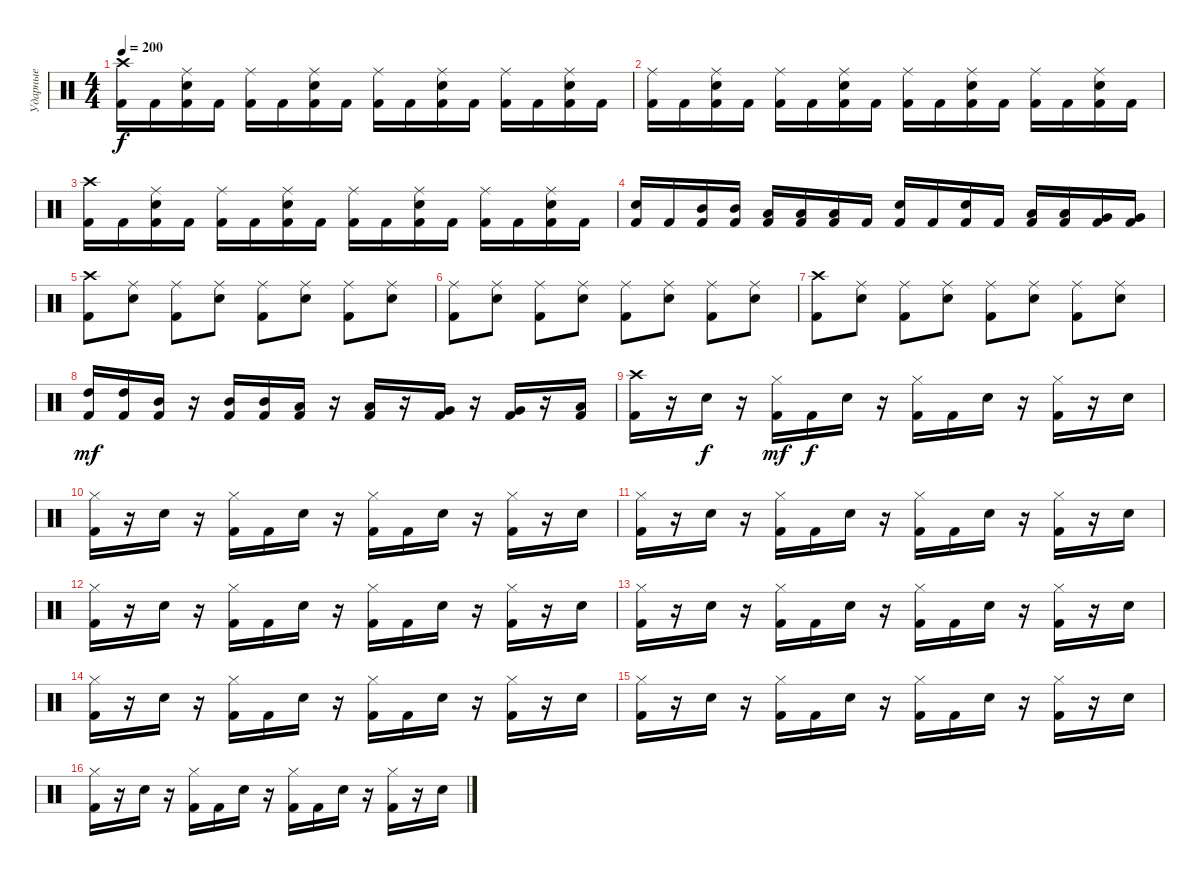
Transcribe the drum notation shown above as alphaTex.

\track ("Ударные" "Ударные") {instrument percussion}
\staff {score}
\articulation defaults
\ts (4 4)
\tempo 200
\clef neutral
\ks c
("Crash high (hit)" "Kick (hit) 2").16{dy f} "Kick (hit) 2".16 ("Ride (middle)" "Snare (hit) 2" "Kick (hit) 2").16 "Kick (hit) 2".16 ("Ride (middle)" "Kick (hit) 2").16 "Kick (hit) 2".16 ("Ride (middle)" "Snare (hit) 2" "Kick (hit) 2").16 "Kick (hit) 2".16 ("Ride (middle)" "Kick (hit) 2").16 "Kick (hit) 2".16 ("Ride (middle)" "Snare (hit) 2" "Kick (hit) 2").16 "Kick (hit) 2".16 ("Ride (middle)" "Kick (hit) 2").16 "Kick (hit) 2".16 ("Ride (middle)" "Snare (hit) 2" "Kick (hit) 2").16 "Kick (hit) 2".16 |
("Ride (middle)" "Kick (hit) 2").16 "Kick (hit) 2".16 ("Ride (middle)" "Snare (hit) 2" "Kick (hit) 2").16 "Kick (hit) 2".16 ("Ride (middle)" "Kick (hit) 2").16 "Kick (hit) 2".16 ("Ride (middle)" "Snare (hit) 2" "Kick (hit) 2").16 "Kick (hit) 2".16 ("Ride (middle)" "Kick (hit) 2").16 "Kick (hit) 2".16 ("Ride (middle)" "Snare (hit) 2" "Kick (hit) 2").16 "Kick (hit) 2".16 ("Ride (middle)" "Kick (hit) 2").16 "Kick (hit) 2".16 ("Ride (middle)" "Snare (hit) 2" "Kick (hit) 2").16 "Kick (hit) 2".16 |
("Crash high (hit)" "Kick (hit) 2").16 "Kick (hit) 2".16 ("Ride (middle)" "Snare (hit) 2" "Kick (hit) 2").16 "Kick (hit) 2".16 ("Ride (middle)" "Kick (hit) 2").16 "Kick (hit) 2".16 ("Ride (middle)" "Snare (hit) 2" "Kick (hit) 2").16 "Kick (hit) 2".16 ("Ride (middle)" "Kick (hit) 2").16 "Kick (hit) 2".16 ("Ride (middle)" "Snare (hit) 2" "Kick (hit) 2").16 "Kick (hit) 2".16 ("Ride (middle)" "Kick (hit) 2").16 "Kick (hit) 2".16 ("Ride (middle)" "Snare (hit) 2" "Kick (hit) 2").16 "Kick (hit) 2".16 |
("Snare (hit) 2" "Kick (hit) 2").16 "Kick (hit) 2".16 ("Mid Tom (hit)" "Kick (hit) 2").16 ("Mid Tom (hit)" "Kick (hit) 2").16 ("Low Tom (hit)" "Kick (hit) 2").16 ("Low Tom (hit)" "Kick (hit) 2").16 ("Low Tom (hit)" "Kick (hit) 2").16 "Kick (hit) 2".16 ("Snare (hit) 2" "Kick (hit) 2").16 "Kick (hit) 2".16 ("Snare (hit) 2" "Kick (hit) 2").16 "Kick (hit) 2".16 ("Low Tom (hit)" "Kick (hit) 2").16 ("Low Tom (hit)" "Kick (hit) 2").16 ("Very Low Tom (hit)" "Kick (hit) 2").16 ("Very Low Tom (hit)" "Kick (hit) 2").16 |
("Crash high (hit)" "Kick (hit) 2").8 ("Ride (middle)" "Snare (hit) 2").8 ("Ride (middle)" "Kick (hit) 2").8 ("Ride (middle)" "Snare (hit) 2").8 ("Ride (middle)" "Kick (hit) 2").8 ("Ride (middle)" "Snare (hit) 2").8 ("Ride (middle)" "Kick (hit) 2").8 ("Ride (middle)" "Snare (hit) 2").8 |
("Ride (middle)" "Kick (hit) 2").8 ("Ride (middle)" "Snare (hit) 2").8 ("Ride (middle)" "Kick (hit) 2").8 ("Ride (middle)" "Snare (hit) 2").8 ("Ride (middle)" "Kick (hit) 2").8 ("Ride (middle)" "Snare (hit) 2").8 ("Ride (middle)" "Kick (hit) 2").8 ("Ride (middle)" "Snare (hit) 2").8 |
("Crash high (hit)" "Kick (hit) 2").8 ("Ride (middle)" "Snare (hit) 2").8 ("Ride (middle)" "Kick (hit) 2").8 ("Ride (middle)" "Snare (hit) 2").8 ("Ride (middle)" "Kick (hit) 2").8 ("Ride (middle)" "Snare (hit) 2").8 ("Ride (middle)" "Kick (hit) 2").8 ("Ride (middle)" "Snare (hit) 2").8 |
("High Tom (hit)" "Kick (hit) 2").16{dy mf} ("High Tom (hit)" "Kick (hit) 2").16 ("Mid Tom (hit)" "Kick (hit) 2").16 r.16 ("Mid Tom (hit)" "Kick (hit) 2").16 ("Mid Tom (hit)" "Kick (hit) 2").16 ("Low Tom (hit)" "Kick (hit) 2").16 r.16 ("Low Tom (hit)" "Kick (hit) 2").16 r.16 ("Very Low Tom (hit)" "Kick (hit) 2").16 r.16 ("Very Low Tom (hit)" "Kick (hit) 2").16 r.16 ("Low Tom (hit)" "Kick (hit) 2").16 |
("Crash high (hit)" "Kick (hit) 2").16 r.16 "Snare (hit) 2".16{dy f} r.16 ("Hi-Hat (closed)" "Kick (hit) 2").16{dy mf} "Kick (hit) 2".16{dy f} "Snare (hit) 2".16 r.16 ("Hi-Hat (closed)" "Kick (hit) 2").16 "Kick (hit) 2".16 "Snare (hit) 2".16 r.16 ("Hi-Hat (closed)" "Kick (hit) 2").16 r.16 "Snare (hit) 2".16 |
("Hi-Hat (closed)" "Kick (hit) 2").16 r.16 "Snare (hit) 2".16 r.16 ("Hi-Hat (closed)" "Kick (hit) 2").16 "Kick (hit) 2".16 "Snare (hit) 2".16 r.16 ("Hi-Hat (closed)" "Kick (hit) 2").16 "Kick (hit) 2".16 "Snare (hit) 2".16 r.16 ("Hi-Hat (closed)" "Kick (hit) 2").16 r.16 "Snare (hit) 2".16 |
("Hi-Hat (closed)" "Kick (hit) 2").16 r.16 "Snare (hit) 2".16 r.16 ("Hi-Hat (closed)" "Kick (hit) 2").16 "Kick (hit) 2".16 "Snare (hit) 2".16 r.16 ("Hi-Hat (closed)" "Kick (hit) 2").16 "Kick (hit) 2".16 "Snare (hit) 2".16 r.16 ("Hi-Hat (closed)" "Kick (hit) 2").16 r.16 "Snare (hit) 2".16 |
("Hi-Hat (closed)" "Kick (hit) 2").16 r.16 "Snare (hit) 2".16 r.16 ("Hi-Hat (closed)" "Kick (hit) 2").16 "Kick (hit) 2".16 "Snare (hit) 2".16 r.16 ("Hi-Hat (closed)" "Kick (hit) 2").16 "Kick (hit) 2".16 "Snare (hit) 2".16 r.16 ("Hi-Hat (closed)" "Kick (hit) 2").16 r.16 "Snare (hit) 2".16 |
("Hi-Hat (closed)" "Kick (hit) 2").16 r.16 "Snare (hit) 2".16 r.16 ("Hi-Hat (closed)" "Kick (hit) 2").16 "Kick (hit) 2".16 "Snare (hit) 2".16 r.16 ("Hi-Hat (closed)" "Kick (hit) 2").16 "Kick (hit) 2".16 "Snare (hit) 2".16 r.16 ("Hi-Hat (closed)" "Kick (hit) 2").16 r.16 "Snare (hit) 2".16 |
("Hi-Hat (closed)" "Kick (hit) 2").16 r.16 "Snare (hit) 2".16 r.16 ("Hi-Hat (closed)" "Kick (hit) 2").16 "Kick (hit) 2".16 "Snare (hit) 2".16 r.16 ("Hi-Hat (closed)" "Kick (hit) 2").16 "Kick (hit) 2".16 "Snare (hit) 2".16 r.16 ("Hi-Hat (closed)" "Kick (hit) 2").16 r.16 "Snare (hit) 2".16 |
("Hi-Hat (closed)" "Kick (hit) 2").16 r.16 "Snare (hit) 2".16 r.16 ("Hi-Hat (closed)" "Kick (hit) 2").16 "Kick (hit) 2".16 "Snare (hit) 2".16 r.16 ("Hi-Hat (closed)" "Kick (hit) 2").16 "Kick (hit) 2".16 "Snare (hit) 2".16 r.16 ("Hi-Hat (closed)" "Kick (hit) 2").16 r.16 "Snare (hit) 2".16 |
("Hi-Hat (closed)" "Kick (hit) 2").16 r.16 "Snare (hit) 2".16 r.16 ("Hi-Hat (closed)" "Kick (hit) 2").16 "Kick (hit) 2".16 "Snare (hit) 2".16 r.16 ("Hi-Hat (closed)" "Kick (hit) 2").16 "Kick (hit) 2".16 "Snare (hit) 2".16 r.16 ("Hi-Hat (closed)" "Kick (hit) 2").16 r.16 "Snare (hit) 2".16
